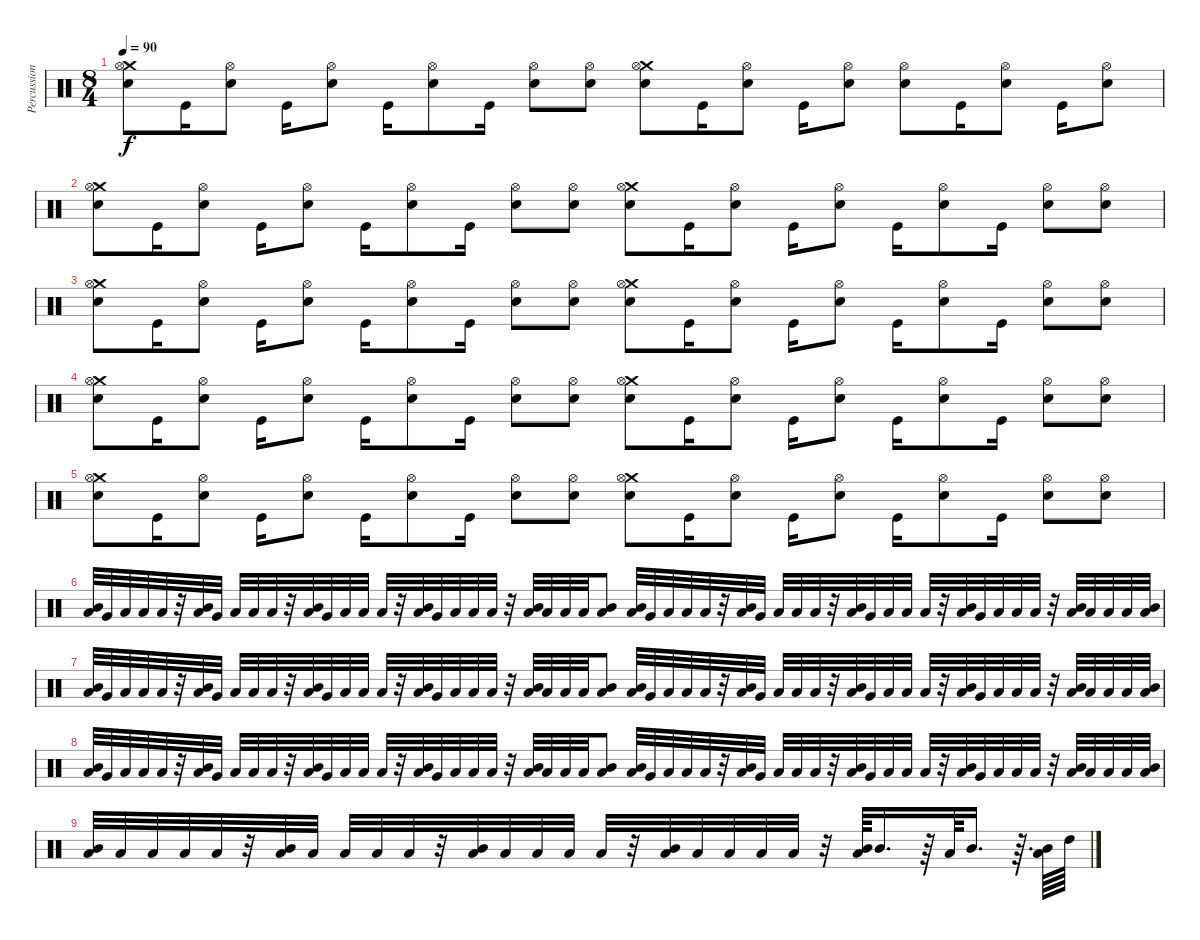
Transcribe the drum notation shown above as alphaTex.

\track ("Percussion" "Percussion") {instrument percussion}
\staff {score}
\articulation defaults
\ts (8 4)
\tempo 90
\clef neutral
\ks c
("Crash medium (hit)" "Hi-Hat (open)" "Snare (hit) 2").8{dy f} "Kick (hit)".16 ("Hi-Hat (open)" "Snare (hit) 2").8 "Kick (hit)".16 ("Hi-Hat (open)" "Snare (hit) 2").8 "Kick (hit)".16 ("Hi-Hat (open)" "Snare (hit) 2").8 "Kick (hit)".16 ("Hi-Hat (open)" "Snare (hit) 2").8 ("Hi-Hat (open)" "Snare (hit) 2").8 ("Crash medium (hit)" "Hi-Hat (open)" "Snare (hit) 2").8 "Kick (hit)".16 ("Hi-Hat (open)" "Snare (hit) 2").8 "Kick (hit)".16 ("Hi-Hat (open)" "Snare (hit) 2").8 ("Hi-Hat (open)" "Snare (hit) 2").8 "Kick (hit)".16 ("Hi-Hat (open)" "Snare (hit) 2").8 "Kick (hit)".16 ("Hi-Hat (open)" "Snare (hit) 2").8 |
("Crash medium (hit)" "Hi-Hat (open)" "Snare (hit) 2").8 "Kick (hit)".16 ("Hi-Hat (open)" "Snare (hit) 2").8 "Kick (hit)".16 ("Hi-Hat (open)" "Snare (hit) 2").8 "Kick (hit)".16 ("Hi-Hat (open)" "Snare (hit) 2").8 "Kick (hit)".16 ("Hi-Hat (open)" "Snare (hit) 2").8 ("Hi-Hat (open)" "Snare (hit) 2").8 ("Crash medium (hit)" "Hi-Hat (open)" "Snare (hit) 2").8 "Kick (hit)".16 ("Hi-Hat (open)" "Snare (hit) 2").8 "Kick (hit)".16 ("Hi-Hat (open)" "Snare (hit) 2").8 "Kick (hit)".16 ("Hi-Hat (open)" "Snare (hit) 2").8 "Kick (hit)".16 ("Hi-Hat (open)" "Snare (hit) 2").8 ("Hi-Hat (open)" "Snare (hit) 2").8 |
("Crash medium (hit)" "Hi-Hat (open)" "Snare (hit) 2").8 "Kick (hit)".16 ("Hi-Hat (open)" "Snare (hit) 2").8 "Kick (hit)".16 ("Hi-Hat (open)" "Snare (hit) 2").8 "Kick (hit)".16 ("Hi-Hat (open)" "Snare (hit) 2").8 "Kick (hit)".16 ("Hi-Hat (open)" "Snare (hit) 2").8 ("Hi-Hat (open)" "Snare (hit) 2").8 ("Crash medium (hit)" "Hi-Hat (open)" "Snare (hit) 2").8 "Kick (hit)".16 ("Hi-Hat (open)" "Snare (hit) 2").8 "Kick (hit)".16 ("Hi-Hat (open)" "Snare (hit) 2").8 "Kick (hit)".16 ("Hi-Hat (open)" "Snare (hit) 2").8 "Kick (hit)".16 ("Hi-Hat (open)" "Snare (hit) 2").8 ("Hi-Hat (open)" "Snare (hit) 2").8 |
("Crash medium (hit)" "Hi-Hat (open)" "Snare (hit) 2").8 "Kick (hit)".16 ("Hi-Hat (open)" "Snare (hit) 2").8 "Kick (hit)".16 ("Hi-Hat (open)" "Snare (hit) 2").8 "Kick (hit)".16 ("Hi-Hat (open)" "Snare (hit) 2").8 "Kick (hit)".16 ("Hi-Hat (open)" "Snare (hit) 2").8 ("Hi-Hat (open)" "Snare (hit) 2").8 ("Crash medium (hit)" "Hi-Hat (open)" "Snare (hit) 2").8 "Kick (hit)".16 ("Hi-Hat (open)" "Snare (hit) 2").8 "Kick (hit)".16 ("Hi-Hat (open)" "Snare (hit) 2").8 "Kick (hit)".16 ("Hi-Hat (open)" "Snare (hit) 2").8 "Kick (hit)".16 ("Hi-Hat (open)" "Snare (hit) 2").8 ("Hi-Hat (open)" "Snare (hit) 2").8 |
("Crash medium (hit)" "Hi-Hat (open)" "Snare (hit) 2").8 "Kick (hit)".16 ("Hi-Hat (open)" "Snare (hit) 2").8 "Kick (hit)".16 ("Hi-Hat (open)" "Snare (hit) 2").8 "Kick (hit)".16 ("Hi-Hat (open)" "Snare (hit) 2").8 "Kick (hit)".16 ("Hi-Hat (open)" "Snare (hit) 2").8 ("Hi-Hat (open)" "Snare (hit) 2").8 ("Crash medium (hit)" "Hi-Hat (open)" "Snare (hit) 2").8 "Kick (hit)".16 ("Hi-Hat (open)" "Snare (hit) 2").8 "Kick (hit)".16 ("Hi-Hat (open)" "Snare (hit) 2").8 "Kick (hit)".16 ("Hi-Hat (open)" "Snare (hit) 2").8 "Kick (hit)".16 ("Hi-Hat (open)" "Snare (hit) 2").8 ("Hi-Hat (open)" "Snare (hit) 2").8 |
("Mid Tom (hit)" "Low Tom (hit)").32 "Very Low Tom (hit)".32 "Low Tom (hit)".32 "Low Tom (hit)".32 "Low Tom (hit)".32 r.32 ("Mid Tom (hit)" "Low Tom (hit)").32 "Very Low Tom (hit)".32 "Low Tom (hit)".32 "Low Tom (hit)".32 "Low Tom (hit)".32 r.32 ("Mid Tom (hit)" "Low Tom (hit)").32 "Very Low Tom (hit)".32 "Low Tom (hit)".32 "Low Tom (hit)".32 "Low Tom (hit)".32 r.32 ("Mid Tom (hit)" "Low Tom (hit)").32 "Very Low Tom (hit)".32 "Low Tom (hit)".32 "Low Tom (hit)".32 "Low Tom (hit)".32 r.32 ("Mid Tom (hit)" "Low Tom (hit)").32 "Low Tom (hit)".32 "Low Tom (hit)".32 "Low Tom (hit)".32 ("Mid Tom (hit)" "Low Tom (hit)").8 ("Mid Tom (hit)" "Low Tom (hit)").32 "Very Low Tom (hit)".32 "Low Tom (hit)".32 "Low Tom (hit)".32 "Low Tom (hit)".32 r.32 ("Mid Tom (hit)" "Low Tom (hit)").32 "Very Low Tom (hit)".32 "Low Tom (hit)".32 "Low Tom (hit)".32 "Low Tom (hit)".32 r.32 ("Mid Tom (hit)" "Low Tom (hit)").32 "Very Low Tom (hit)".32 "Low Tom (hit)".32 "Low Tom (hit)".32 "Low Tom (hit)".32 r.32 ("Mid Tom (hit)" "Low Tom (hit)").32 "Very Low Tom (hit)".32 "Low Tom (hit)".32 "Low Tom (hit)".32 "Low Tom (hit)".32 r.32 ("Mid Tom (hit)" "Low Tom (hit)").32 "Low Tom (hit)".32 "Low Tom (hit)".32 "Low Tom (hit)".32 ("Mid Tom (hit)" "Low Tom (hit)").32 |
("Mid Tom (hit)" "Low Tom (hit)").32 "Very Low Tom (hit)".32 "Low Tom (hit)".32 "Low Tom (hit)".32 "Low Tom (hit)".32 r.32 ("Mid Tom (hit)" "Low Tom (hit)").32 "Very Low Tom (hit)".32 "Low Tom (hit)".32 "Low Tom (hit)".32 "Low Tom (hit)".32 r.32 ("Mid Tom (hit)" "Low Tom (hit)").32 "Very Low Tom (hit)".32 "Low Tom (hit)".32 "Low Tom (hit)".32 "Low Tom (hit)".32 r.32 ("Mid Tom (hit)" "Low Tom (hit)").32 "Very Low Tom (hit)".32 "Low Tom (hit)".32 "Low Tom (hit)".32 "Low Tom (hit)".32 r.32 ("Mid Tom (hit)" "Low Tom (hit)").32 "Low Tom (hit)".32 "Low Tom (hit)".32 "Low Tom (hit)".32 ("Mid Tom (hit)" "Low Tom (hit)").8 ("Mid Tom (hit)" "Low Tom (hit)").32 "Very Low Tom (hit)".32 "Low Tom (hit)".32 "Low Tom (hit)".32 "Low Tom (hit)".32 r.32 ("Mid Tom (hit)" "Low Tom (hit)").32 "Very Low Tom (hit)".32 "Low Tom (hit)".32 "Low Tom (hit)".32 "Low Tom (hit)".32 r.32 ("Mid Tom (hit)" "Low Tom (hit)").32 "Very Low Tom (hit)".32 "Low Tom (hit)".32 "Low Tom (hit)".32 "Low Tom (hit)".32 r.32 ("Mid Tom (hit)" "Low Tom (hit)").32 "Very Low Tom (hit)".32 "Low Tom (hit)".32 "Low Tom (hit)".32 "Low Tom (hit)".32 r.32 ("Mid Tom (hit)" "Low Tom (hit)").32 "Low Tom (hit)".32 "Low Tom (hit)".32 "Low Tom (hit)".32 ("Mid Tom (hit)" "Low Tom (hit)").32 |
("Mid Tom (hit)" "Low Tom (hit)").32 "Very Low Tom (hit)".32 "Low Tom (hit)".32 "Low Tom (hit)".32 "Low Tom (hit)".32 r.32 ("Mid Tom (hit)" "Low Tom (hit)").32 "Very Low Tom (hit)".32 "Low Tom (hit)".32 "Low Tom (hit)".32 "Low Tom (hit)".32 r.32 ("Mid Tom (hit)" "Low Tom (hit)").32 "Very Low Tom (hit)".32 "Low Tom (hit)".32 "Low Tom (hit)".32 "Low Tom (hit)".32 r.32 ("Mid Tom (hit)" "Low Tom (hit)").32 "Very Low Tom (hit)".32 "Low Tom (hit)".32 "Low Tom (hit)".32 "Low Tom (hit)".32 r.32 ("Mid Tom (hit)" "Low Tom (hit)").32 "Low Tom (hit)".32 "Low Tom (hit)".32 "Low Tom (hit)".32 ("Mid Tom (hit)" "Low Tom (hit)").8 ("Mid Tom (hit)" "Low Tom (hit)").32 "Very Low Tom (hit)".32 "Low Tom (hit)".32 "Low Tom (hit)".32 "Low Tom (hit)".32 r.32 ("Mid Tom (hit)" "Low Tom (hit)").32 "Very Low Tom (hit)".32 "Low Tom (hit)".32 "Low Tom (hit)".32 "Low Tom (hit)".32 r.32 ("Mid Tom (hit)" "Low Tom (hit)").32 "Very Low Tom (hit)".32 "Low Tom (hit)".32 "Low Tom (hit)".32 "Low Tom (hit)".32 r.32 ("Mid Tom (hit)" "Low Tom (hit)").32 "Very Low Tom (hit)".32 "Low Tom (hit)".32 "Low Tom (hit)".32 "Low Tom (hit)".32 r.32 ("Mid Tom (hit)" "Low Tom (hit)").32 "Low Tom (hit)".32 "Low Tom (hit)".32 "Low Tom (hit)".32 ("Mid Tom (hit)" "Low Tom (hit)").32 |
("Mid Tom (hit)" "Low Tom (hit)").32 "Low Tom (hit)".32 "Low Tom (hit)".32 "Low Tom (hit)".32 "Low Tom (hit)".32 r.32 ("Mid Tom (hit)" "Low Tom (hit)").32 "Low Tom (hit)".32 "Low Tom (hit)".32 "Low Tom (hit)".32 "Low Tom (hit)".32 r.32 ("Mid Tom (hit)" "Low Tom (hit)").32 "Low Tom (hit)".32 "Low Tom (hit)".32 "Low Tom (hit)".32 "Low Tom (hit)".32 r.32 ("Mid Tom (hit)" "Low Tom (hit)").32 "Low Tom (hit)".32 "Low Tom (hit)".32 "Low Tom (hit)".32 "Low Tom (hit)".32 r.32 ("Mid Tom (hit)" "Low Tom (hit)").64 "Mid Tom (hit)".16{d} r.64 "Low Tom (hit)".64 "Mid Tom (hit)".16{d} r.64{d} ("Low Tom (hit)" "Mid Tom (hit)").64 "High Tom (hit)".64
